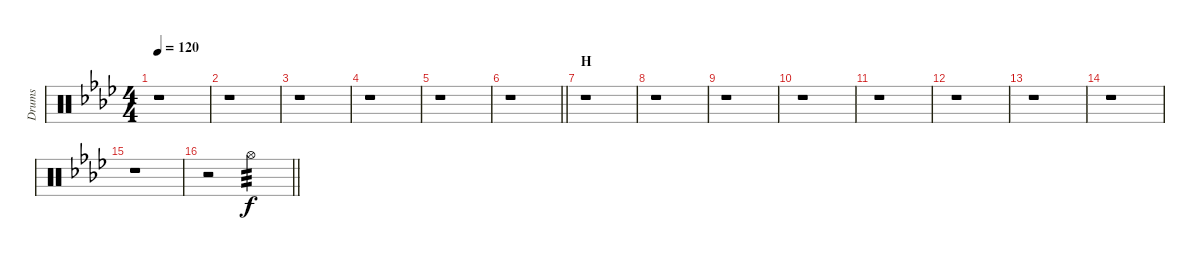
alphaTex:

\track ("Drums" "Drums") {instrument percussion}
\staff {score}
\articulation defaults
\ts (4 4)
\tempo 120
\clef neutral
\ks ab
r.1{dy f} |
r.1 |
r.1 |
r.1 |
r.1 |
\barLineRight lightlight
r.1 |
\section ("" "H")
r.1 |
r.1 |
r.1 |
r.1 |
r.1 |
r.1 |
r.1 |
r.1 |
r.1 |
\barLineRight lightlight
r.2{volume 0} "Hi-Hat (open)".2{tp 3 volume 14}
